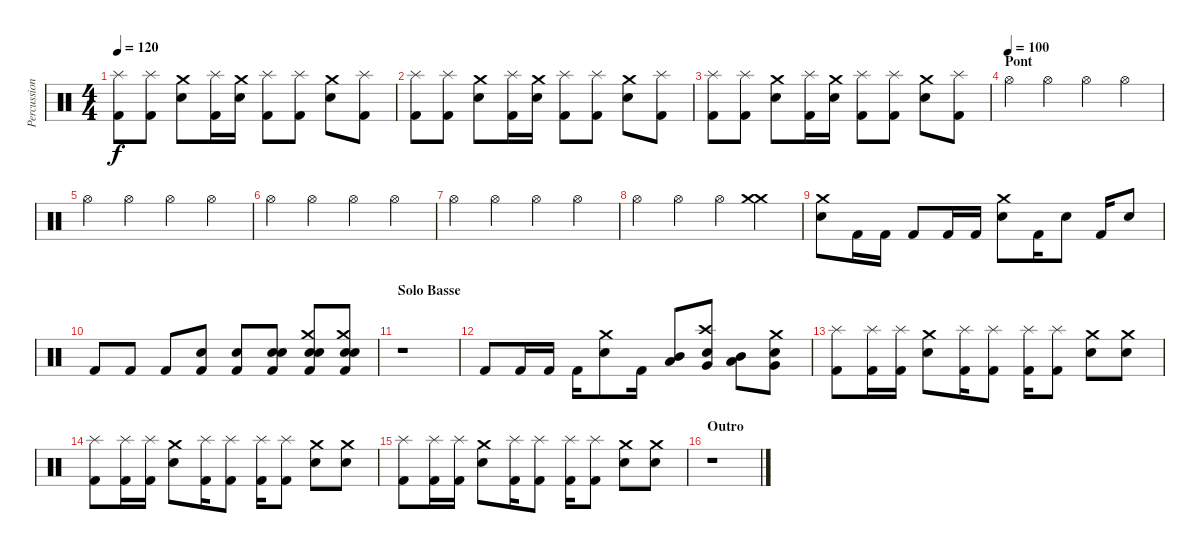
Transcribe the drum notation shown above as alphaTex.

\track ("Percussions" "Percussion") {instrument percussion}
\staff {score}
\articulation defaults
\ts (4 4)
\tempo 120
\clef neutral
\ks c
("Splash (hit)" "Kick (hit) 2").8{dy f} ("Splash (hit)" "Kick (hit) 2").8 ("Crash medium (hit)" "Snare (hit) 2").8 ("Splash (hit)" "Kick (hit) 2").16 ("Crash medium (hit)" "Snare (hit) 2").16 ("Splash (hit)" "Kick (hit) 2").8 ("Splash (hit)" "Kick (hit) 2").8 ("Crash medium (hit)" "Snare (hit) 2").8 ("Splash (hit)" "Kick (hit) 2").8 |
("Splash (hit)" "Kick (hit) 2").8 ("Splash (hit)" "Kick (hit) 2").8 ("Crash medium (hit)" "Snare (hit) 2").8 ("Splash (hit)" "Kick (hit) 2").16 ("Crash medium (hit)" "Snare (hit) 2").16 ("Splash (hit)" "Kick (hit) 2").8 ("Splash (hit)" "Kick (hit) 2").8 ("Crash medium (hit)" "Snare (hit) 2").8 ("Splash (hit)" "Kick (hit) 2").8 |
("Splash (hit)" "Kick (hit) 2").8 ("Splash (hit)" "Kick (hit) 2").8 ("Crash medium (hit)" "Snare (hit) 2").8 ("Splash (hit)" "Kick (hit) 2").16 ("Crash medium (hit)" "Snare (hit) 2").16 ("Splash (hit)" "Kick (hit) 2").8 ("Splash (hit)" "Kick (hit) 2").8 ("Crash medium (hit)" "Snare (hit) 2").8 ("Splash (hit)" "Kick (hit) 2").8 |
\section ("" "Pont")
\tempo (100)
"Hi-Hat (open)".4 "Hi-Hat (open)".4 "Hi-Hat (open)".4 "Hi-Hat (open)".4 |
"Hi-Hat (open)".4 "Hi-Hat (open)".4 "Hi-Hat (open)".4 "Hi-Hat (open)".4 |
"Hi-Hat (open)".4 "Hi-Hat (open)".4 "Hi-Hat (open)".4 "Hi-Hat (open)".4 |
"Hi-Hat (open)".4 "Hi-Hat (open)".4 "Hi-Hat (open)".4 "Hi-Hat (open)".4 |
"Hi-Hat (open)".4 "Hi-Hat (open)".4 "Hi-Hat (open)".4 ("Crash medium (hit)" "Crash medium (hit)").4 |
("Crash medium (hit)" "Snare (hit) 2").8 "Kick (hit) 2".16 "Kick (hit) 2".16 "Kick (hit) 2".8 "Kick (hit) 2".16 "Kick (hit) 2".16 ("Crash medium (hit)" "Snare (hit) 2").8 "Kick (hit) 2".16 "Snare (hit) 2".8 "Kick (hit) 2".16 "Snare (hit) 2".8 |
"Kick (hit) 2".8 "Kick (hit) 2".8 "Kick (hit) 2".8 ("Snare (hit) 2" "Kick (hit) 2").8 ("Snare (hit) 2" "Kick (hit) 2").8 ("Snare (hit) 2" "Snare (hit) 2" "Kick (hit) 2").8 ("Crash medium (hit)" "Snare (hit) 2" "Snare (hit) 2" "Kick (hit) 2").8 ("Crash medium (hit)" "Snare (hit) 2" "Snare (hit) 2" "Kick (hit) 2").8 |
\section ("" "Solo Basse")
r.1 |
"Kick (hit) 2".8 "Kick (hit) 2".16 "Kick (hit) 2".16 "Kick (hit) 2".16 ("Crash medium (hit)" "Snare (hit) 2").8 "Kick (hit) 2".16 ("Mid Tom (hit)" "Low Tom (hit)").8 ("Crash high (hit)" "Very Low Tom (hit)" "Snare (hit) 2").8 ("Mid Tom (hit)" "Low Tom (hit)").8 ("Crash medium (hit)" "Very Low Tom (hit)" "Snare (hit) 2").8 |
("Splash (hit)" "Kick (hit) 2").8 ("Splash (hit)" "Kick (hit) 2").16 ("Splash (hit)" "Kick (hit) 2").16 ("Crash medium (hit)" "Snare (hit) 2").8 ("Splash (hit)" "Kick (hit) 2").16 ("Splash (hit)" "Kick (hit) 2").8 ("Splash (hit)" "Kick (hit) 2").16 ("Splash (hit)" "Kick (hit) 2").8 ("Crash medium (hit)" "Snare (hit) 2").8 ("Crash medium (hit)" "Snare (hit) 2").8 |
("Splash (hit)" "Kick (hit) 2").8 ("Splash (hit)" "Kick (hit) 2").16 ("Splash (hit)" "Kick (hit) 2").16 ("Crash medium (hit)" "Snare (hit) 2").8 ("Splash (hit)" "Kick (hit) 2").16 ("Splash (hit)" "Kick (hit) 2").8 ("Splash (hit)" "Kick (hit) 2").16 ("Splash (hit)" "Kick (hit) 2").8 ("Crash medium (hit)" "Snare (hit) 2").8 ("Crash medium (hit)" "Snare (hit) 2").8 |
("Splash (hit)" "Kick (hit) 2").8 ("Splash (hit)" "Kick (hit) 2").16 ("Splash (hit)" "Kick (hit) 2").16 ("Crash medium (hit)" "Snare (hit) 2").8 ("Splash (hit)" "Kick (hit) 2").16 ("Splash (hit)" "Kick (hit) 2").8 ("Splash (hit)" "Kick (hit) 2").16 ("Splash (hit)" "Kick (hit) 2").8 ("Crash medium (hit)" "Snare (hit) 2").8 ("Crash medium (hit)" "Snare (hit) 2").8 |
\section ("" "Outro")
r.1
